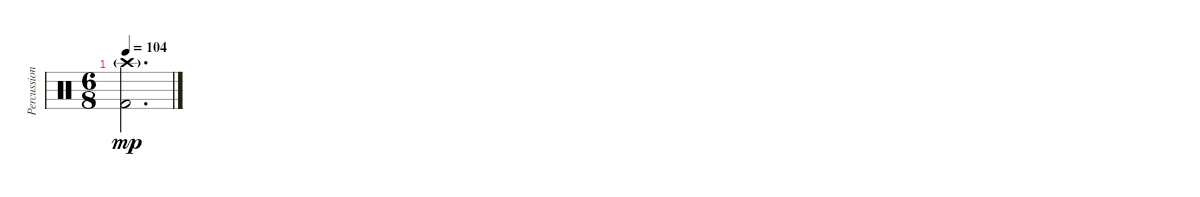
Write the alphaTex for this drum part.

\track ("Percussion" "Percussion") {instrument percussion}
\staff {score}
\articulation defaults
\ts (6 8)
\tempo 104
\clef neutral
\ks c
("Crash high (hit)"{g} "Kick (hit) 2").2{d dy mp}
